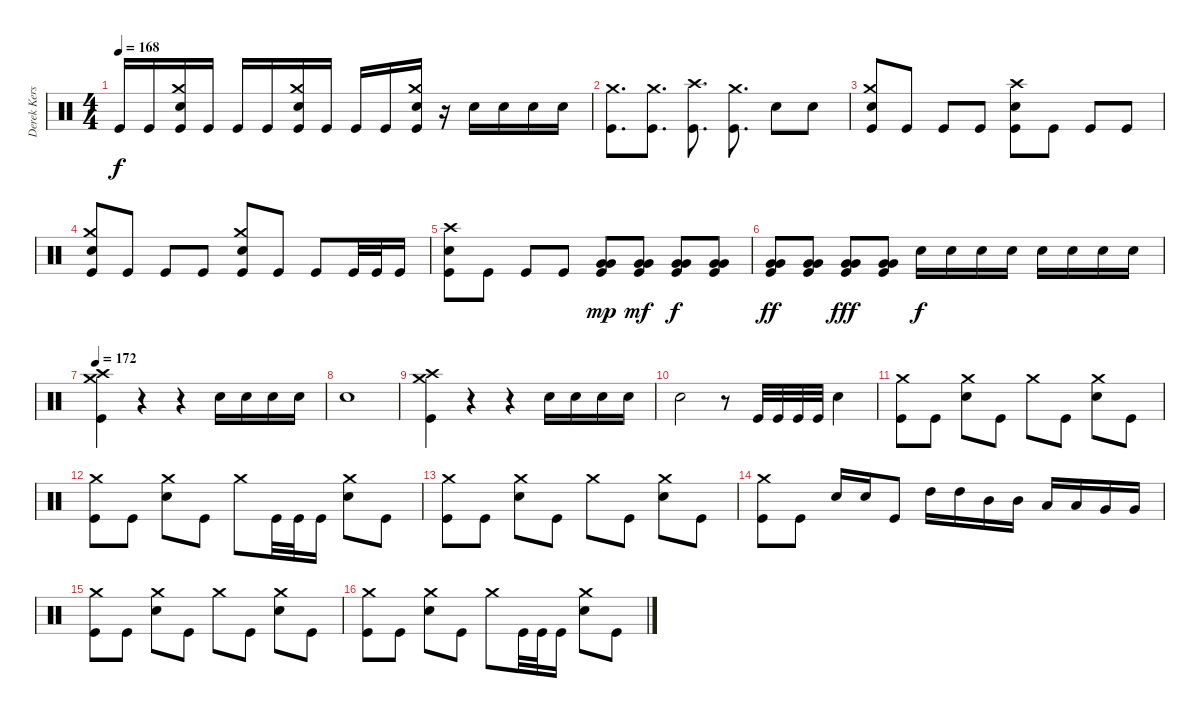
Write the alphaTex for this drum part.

\track ("Derek Kerswill" "Derek Kers") {instrument percussion}
\staff {score}
\articulation defaults
\ts (4 4)
\tempo 168
\clef neutral
\ks c "Kick (hit)".16{dy f} "Kick (hit)".16
("Crash medium (hit)" "Electric Snare (hit)" "Kick (hit)").16 "Kick (hit)".16 "Kick (hit)".16 "Kick (hit)".16 ("Crash medium (hit)" "Electric Snare (hit)" "Kick (hit)").16 "Kick (hit)".16 "Kick (hit)".16 "Kick (hit)".16 ("Crash medium (hit)" "Electric Snare (hit)" "Kick (hit)").16 r.16 "Electric Snare (hit)".16 "Electric Snare (hit)".16 "Electric Snare (hit)".16 "Electric Snare (hit)".16 |
("Crash medium (hit)" "Kick (hit)").8{d} ("Crash medium (hit)" "Kick (hit)").8{d} ("Crash high (hit)" "Kick (hit)").8{d} ("Crash medium (hit)" "Kick (hit)").8{d} "Electric Snare (hit)".8 "Electric Snare (hit)".8 |
("Crash medium (hit)" "Electric Snare (hit)" "Kick (hit)").8 "Kick (hit)".8 "Kick (hit)".8 "Kick (hit)".8 ("Crash high (hit)" "Electric Snare (hit)" "Kick (hit)").8 "Kick (hit)".8 "Kick (hit)".8 "Kick (hit)".8 |
("Crash medium (hit)" "Electric Snare (hit)" "Kick (hit)").8 "Kick (hit)".8 "Kick (hit)".8 "Kick (hit)".8 ("Crash medium (hit)" "Electric Snare (hit)" "Kick (hit)").8 "Kick (hit)".8 "Kick (hit)".8 "Kick (hit)".32 "Kick (hit)".32 "Kick (hit)".16 |
("Crash high (hit)" "Electric Snare (hit)" "Kick (hit)").8 "Kick (hit)".8 "Kick (hit)".8 "Kick (hit)".8 ("Very Low Tom (hit)" "Very Low Tom (hit)" "Kick (hit)").8{dy mp} ("Very Low Tom (hit)" "Very Low Tom (hit)" "Kick (hit)").8{dy mf} ("Very Low Tom (hit)" "Very Low Tom (hit)" "Kick (hit)").8{dy f} ("Very Low Tom (hit)" "Very Low Tom (hit)" "Kick (hit)").8 |
("Very Low Tom (hit)" "Very Low Tom (hit)" "Kick (hit)").8{dy ff} ("Very Low Tom (hit)" "Very Low Tom (hit)" "Kick (hit)").8 ("Very Low Tom (hit)" "Very Low Tom (hit)" "Kick (hit)").8{dy fff} ("Very Low Tom (hit)" "Very Low Tom (hit)" "Kick (hit)").8 "Electric Snare (hit)".16{dy f} "Electric Snare (hit)".16 "Electric Snare (hit)".16 "Electric Snare (hit)".16 "Electric Snare (hit)".16 "Electric Snare (hit)".16 "Electric Snare (hit)".16 "Electric Snare (hit)".16 |
\tempo 172
("Crash high (hit)" "Crash medium (hit)" "Kick (hit)").4 r.4 r.4 "Electric Snare (hit)".16 "Electric Snare (hit)".16 "Electric Snare (hit)".16 "Electric Snare (hit)".16 |
"Electric Snare (hit)".1 |
("Crash high (hit)" "Crash medium (hit)" "Kick (hit)").4 r.4 r.4 "Electric Snare (hit)".16 "Electric Snare (hit)".16 "Electric Snare (hit)".16 "Electric Snare (hit)".16 |
"Electric Snare (hit)".2 r.8 "Kick (hit)".32 "Kick (hit)".32 "Kick (hit)".32 "Kick (hit)".32 "Electric Snare (hit)".4 |
("Crash medium (hit)" "Kick (hit)").8 "Kick (hit)".8 ("Crash medium (hit)" "Electric Snare (hit)").8 "Kick (hit)".8 "Crash medium (hit)".8 "Kick (hit)".8 ("Crash medium (hit)" "Electric Snare (hit)").8 "Kick (hit)".8 |
("Crash medium (hit)" "Kick (hit)").8 "Kick (hit)".8 ("Crash medium (hit)" "Electric Snare (hit)").8 "Kick (hit)".8 "Crash medium (hit)".8 "Kick (hit)".32 "Kick (hit)".32 "Kick (hit)".16 ("Crash medium (hit)" "Electric Snare (hit)").8 "Kick (hit)".8 |
("Crash medium (hit)" "Kick (hit)").8 "Kick (hit)".8 ("Crash medium (hit)" "Electric Snare (hit)").8 "Kick (hit)".8 "Crash medium (hit)".8 "Kick (hit)".8 ("Crash medium (hit)" "Electric Snare (hit)").8 "Kick (hit)".8 |
("Crash medium (hit)" "Kick (hit)").8 "Kick (hit)".8 "Electric Snare (hit)".16 "Electric Snare (hit)".16 "Kick (hit)".8 "High Tom (hit)".16 "High Tom (hit)".16 "Mid Tom (hit)".16 "Mid Tom (hit)".16 "Low Tom (hit)".16 "Low Tom (hit)".16 "Very Low Tom (hit)".16 "Very Low Tom (hit)".16 |
("Crash medium (hit)" "Kick (hit)").8 "Kick (hit)".8 ("Crash medium (hit)" "Electric Snare (hit)").8 "Kick (hit)".8 "Crash medium (hit)".8 "Kick (hit)".8 ("Crash medium (hit)" "Electric Snare (hit)").8 "Kick (hit)".8 |
("Crash medium (hit)" "Kick (hit)").8 "Kick (hit)".8 ("Crash medium (hit)" "Electric Snare (hit)").8 "Kick (hit)".8 "Crash medium (hit)".8 "Kick (hit)".32 "Kick (hit)".32 "Kick (hit)".16 ("Crash medium (hit)" "Electric Snare (hit)").8 "Kick (hit)".8
